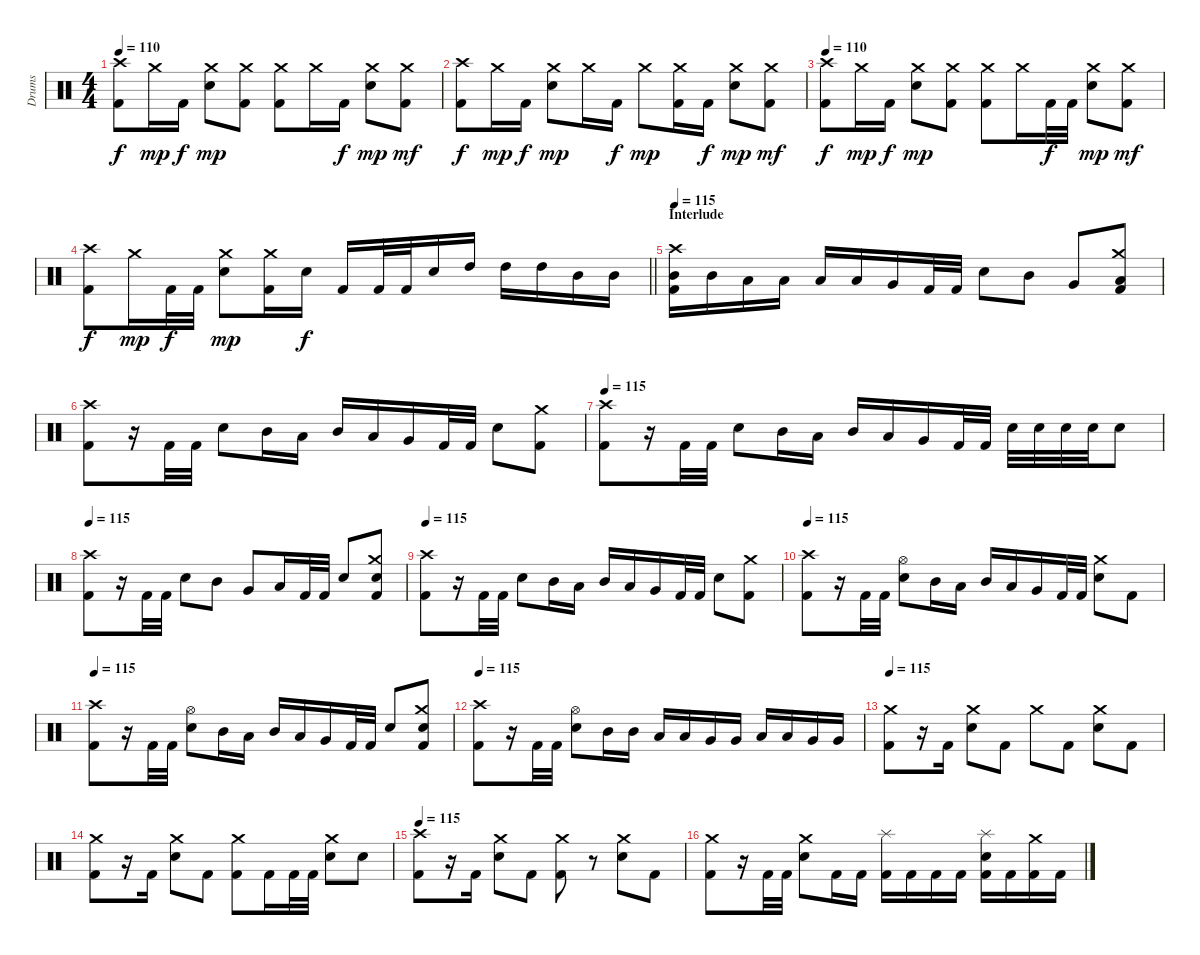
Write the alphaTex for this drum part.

\track ("Drums" "Drums") {instrument percussion}
\staff {score}
\articulation defaults
\ts (4 4)
\tempo 110
\clef neutral
\ks c
("Crash high (hit)" "Kick (hit) 2").8{dy f} "Crash medium (hit)".16{dy mp} "Kick (hit) 2".16{dy f} ("Crash medium (hit)" "Electric Snare (hit)").8{dy mp} ("Crash medium (hit)" "Kick (hit) 2").8 ("Crash medium (hit)" "Kick (hit) 2").8 "Crash medium (hit)".16 "Kick (hit) 2".16{dy f} ("Crash medium (hit)" "Electric Snare (hit)").8{dy mp} ("Crash medium (hit)" "Kick (hit) 2").8{dy mf} |
("Crash high (hit)" "Kick (hit) 2").8{dy f} "Crash medium (hit)".16{dy mp} "Kick (hit) 2".16{dy f} ("Crash medium (hit)" "Electric Snare (hit)").8{dy mp} "Crash medium (hit)".16 "Kick (hit) 2".16{dy f} "Crash medium (hit)".8{dy mp} ("Crash medium (hit)" "Kick (hit) 2").16 "Kick (hit) 2".16{dy f} ("Crash medium (hit)" "Electric Snare (hit)").8{dy mp} ("Crash medium (hit)" "Kick (hit) 2").8{dy mf} |
\tempo 110
("Crash high (hit)" "Kick (hit) 2").8{dy f} "Crash medium (hit)".16{dy mp} "Kick (hit) 2".16{dy f} ("Crash medium (hit)" "Electric Snare (hit)").8{dy mp} ("Crash medium (hit)" "Kick (hit) 2").8 ("Crash medium (hit)" "Kick (hit) 2").8 "Crash medium (hit)".16 "Kick (hit) 2".32{dy f} "Kick (hit) 2".32 ("Crash medium (hit)" "Electric Snare (hit)").8{dy mp} ("Crash medium (hit)" "Kick (hit) 2").8{dy mf} |
\barLineRight lightlight
("Crash high (hit)" "Kick (hit) 2").8{dy f} "Crash medium (hit)".16{dy mp} "Kick (hit) 2".32{dy f} "Kick (hit) 2".32 ("Crash medium (hit)" "Electric Snare (hit)").8{dy mp} ("Crash medium (hit)" "Kick (hit) 2").16 "Electric Snare (hit)".16{dy f} "Kick (hit) 2".16 "Kick (hit) 2".32 "Kick (hit) 2".32 "Electric Snare (hit)".16 "High Tom (hit)".16 "High Tom (hit)".16 "High Tom (hit)".16 "Mid Tom (hit)".16 "Mid Tom (hit)".16 |
\section ("" "Interlude")
\tempo 115
("Crash high (hit)" "Mid Tom (hit)" "Kick (hit) 2").16 "Mid Tom (hit)".16 "Low Tom (hit)".16 "Low Tom (hit)".16 "Low Tom (hit)".16 "Low Tom (hit)".16 "Very Low Tom (hit)".16 "Kick (hit) 2".32 "Kick (hit) 2".32 "Electric Snare (hit)".8 "Mid Tom (hit)".8 "Very Low Tom (hit)".8 ("Crash medium (hit)" "Low Tom (hit)" "Kick (hit) 2").8 |
("Crash high (hit)" "Kick (hit) 2").8 r.16 "Kick (hit) 2".32 "Kick (hit) 2".32 "Electric Snare (hit)".8 "Mid Tom (hit)".16 "Low Tom (hit)".16 "Mid Tom (hit)".16 "Low Tom (hit)".16 "Very Low Tom (hit)".16 "Kick (hit) 2".32 "Kick (hit) 2".32 "Electric Snare (hit)".8 ("Crash medium (hit)" "Kick (hit) 2").8 |
\tempo 115
("Crash high (hit)" "Kick (hit) 2").8 r.16 "Kick (hit) 2".32 "Kick (hit) 2".32 "Electric Snare (hit)".8 "Mid Tom (hit)".16 "Low Tom (hit)".16 "Mid Tom (hit)".16 "Low Tom (hit)".16 "Very Low Tom (hit)".16 "Kick (hit) 2".32 "Kick (hit) 2".32 "Electric Snare (hit)".32 "Electric Snare (hit)".32 "Electric Snare (hit)".32 "Electric Snare (hit)".32 "Electric Snare (hit)".8 |
\tempo 115
("Crash high (hit)" "Kick (hit) 2").8 r.16 "Kick (hit) 2".32 "Kick (hit) 2".32 "Electric Snare (hit)".8 "Mid Tom (hit)".8 "Very Low Tom (hit)".8 "Low Tom (hit)".16 "Kick (hit) 2".32 "Kick (hit) 2".32 "Electric Snare (hit)".8 ("Crash medium (hit)" "Electric Snare (hit)" "Kick (hit) 2").8 |
\tempo 115
("Crash high (hit)" "Kick (hit) 2").8 r.16 "Kick (hit) 2".32 "Kick (hit) 2".32 "Electric Snare (hit)".8 "Mid Tom (hit)".16 "Low Tom (hit)".16 "Mid Tom (hit)".16 "Low Tom (hit)".16 "Very Low Tom (hit)".16 "Kick (hit) 2".32 "Kick (hit) 2".32 "Electric Snare (hit)".8 ("Crash medium (hit)" "Kick (hit) 2").8 |
\tempo 115
("Crash high (hit)" "Kick (hit) 2").8 r.16 "Kick (hit) 2".32 "Kick (hit) 2".32 ("Hi-Hat (open)" "Electric Snare (hit)").8 "Mid Tom (hit)".16 "Low Tom (hit)".16 "Mid Tom (hit)".16 "Low Tom (hit)".16 "Very Low Tom (hit)".16 "Kick (hit) 2".32 "Kick (hit) 2".32 ("Crash medium (hit)" "Electric Snare (hit)").8 "Kick (hit) 2".8 |
\tempo 115
("Crash high (hit)" "Kick (hit) 2").8 r.16 "Kick (hit) 2".32 "Kick (hit) 2".32 ("Hi-Hat (open)" "Electric Snare (hit)").8 "Mid Tom (hit)".16 "Low Tom (hit)".16 "Mid Tom (hit)".16 "Low Tom (hit)".16 "Very Low Tom (hit)".16 "Kick (hit) 2".32 "Kick (hit) 2".32 "Electric Snare (hit)".8 ("Crash medium (hit)" "Electric Snare (hit)" "Kick (hit) 2").8 |
\tempo 115
("Crash high (hit)" "Kick (hit) 2").8 r.16 "Kick (hit) 2".32 "Kick (hit) 2".32 ("Hi-Hat (open)" "Electric Snare (hit)").8 "Mid Tom (hit)".16 "Mid Tom (hit)".16 "Low Tom (hit)".16 "Low Tom (hit)".16 "Very Low Tom (hit)".16 "Very Low Tom (hit)".16 "Low Tom (hit)".16 "Low Tom (hit)".16 "Very Low Tom (hit)".16 "Very Low Tom (hit)".16 |
\tempo 115
("Crash medium (hit)" "Kick (hit) 2").8 r.16 "Kick (hit) 2".16 ("Crash medium (hit)" "Electric Snare (hit)").8 "Kick (hit) 2".8 "Crash medium (hit)".8 "Kick (hit) 2".8 ("Crash medium (hit)" "Electric Snare (hit)").8 "Kick (hit) 2".8 |
("Crash medium (hit)" "Kick (hit) 2").8 r.16 "Kick (hit) 2".16 ("Crash medium (hit)" "Electric Snare (hit)").8 "Kick (hit) 2".8 ("Crash medium (hit)" "Kick (hit) 2").8 "Kick (hit) 2".16 "Kick (hit) 2".32 "Kick (hit) 2".32 ("Crash medium (hit)" "Electric Snare (hit)").8 "Electric Snare (hit)".8 |
\tempo 115
("Crash high (hit)" "Kick (hit) 2").8 r.16 "Kick (hit) 2".16 ("Crash medium (hit)" "Electric Snare (hit)").8 "Kick (hit) 2".8 ("Crash medium (hit)" "Kick (hit) 2").8 r.8 ("Crash medium (hit)" "Electric Snare (hit)").8 "Kick (hit) 2".8 |
("Crash medium (hit)" "Kick (hit) 2").8 r.16 "Kick (hit) 2".32 "Kick (hit) 2".32 ("Crash medium (hit)" "Electric Snare (hit)").8 "Kick (hit) 2".16 "Kick (hit) 2".16 ("Splash (hit)" "Kick (hit) 2").16 "Kick (hit) 2".16 "Kick (hit) 2".16 "Kick (hit) 2".16 ("Splash (hit)" "Electric Snare (hit)" "Kick (hit) 2").16 "Kick (hit) 2".16 ("Crash medium (hit)" "Kick (hit) 2").16 "Kick (hit) 2".16
